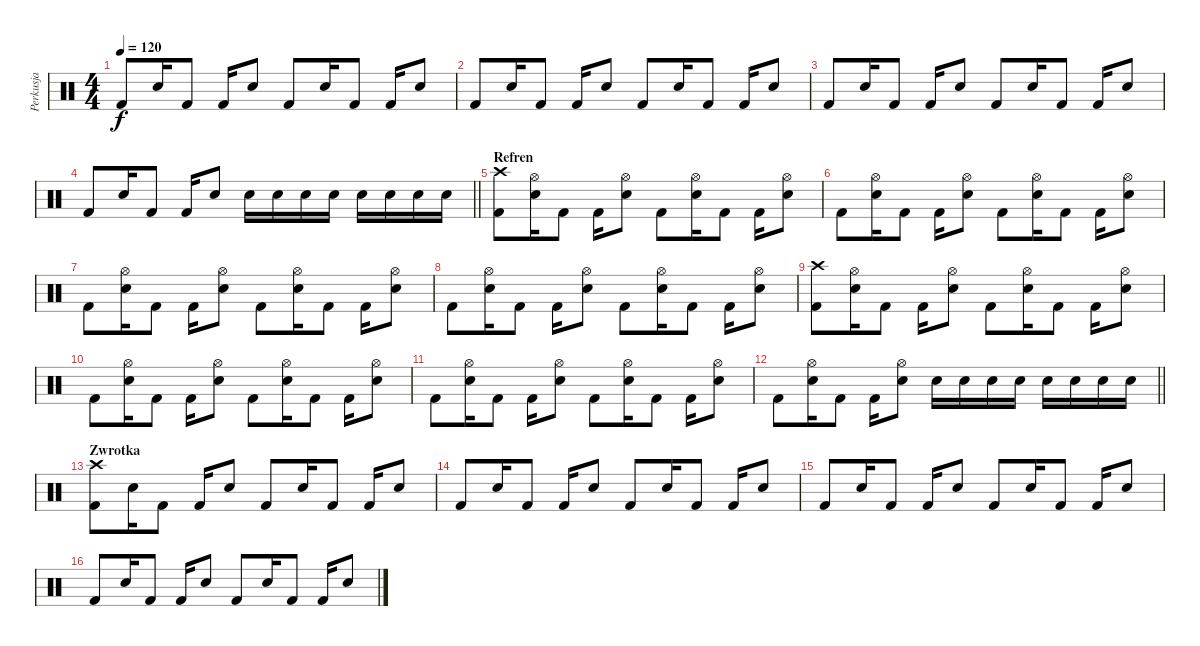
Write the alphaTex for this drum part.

\track ("Perkusja" "Perkusja") {instrument percussion}
\staff {score}
\articulation defaults
\ts (4 4)
\tempo 120
\clef neutral
\ks c "Kick (hit) 2".8{dy f} "Electric Snare (hit)".16 "Kick (hit) 2".8 "Kick (hit) 2".16 "Electric Snare (hit)".8 "Kick (hit) 2".8 "Electric Snare (hit)".16 "Kick (hit) 2".8 "Kick (hit) 2".16 "Electric Snare (hit)".8
|
"Kick (hit) 2".8 "Electric Snare (hit)".16 "Kick (hit) 2".8 "Kick (hit) 2".16 "Electric Snare (hit)".8 "Kick (hit) 2".8 "Electric Snare (hit)".16 "Kick (hit) 2".8 "Kick (hit) 2".16 "Electric Snare (hit)".8 |
"Kick (hit) 2".8 "Electric Snare (hit)".16 "Kick (hit) 2".8 "Kick (hit) 2".16 "Electric Snare (hit)".8 "Kick (hit) 2".8 "Electric Snare (hit)".16 "Kick (hit) 2".8 "Kick (hit) 2".16 "Electric Snare (hit)".8 |
\barLineRight lightlight "Kick (hit) 2".8 "Electric Snare (hit)".16 "Kick (hit) 2".8 "Kick (hit) 2".16 "Electric Snare (hit)".8 "Electric Snare (hit)".16 "Electric Snare (hit)".16 "Electric Snare (hit)".16 "Electric Snare (hit)".16 "Electric Snare (hit)".16 "Electric Snare (hit)".16 "Electric Snare (hit)".16 "Electric Snare (hit)".16
|
\section ("" "Refren")
("Crash high (hit)" "Kick (hit) 2").8 ("Hi-Hat (open)" "Electric Snare (hit)").16 "Kick (hit) 2".8 "Kick (hit) 2".16 ("Hi-Hat (open)" "Electric Snare (hit)").8 "Kick (hit) 2".8 ("Hi-Hat (open)" "Electric Snare (hit)").16 "Kick (hit) 2".8 "Kick (hit) 2".16 ("Hi-Hat (open)" "Electric Snare (hit)").8 |
"Kick (hit) 2".8 ("Hi-Hat (open)" "Electric Snare (hit)").16 "Kick (hit) 2".8 "Kick (hit) 2".16 ("Hi-Hat (open)" "Electric Snare (hit)").8 "Kick (hit) 2".8 ("Hi-Hat (open)" "Electric Snare (hit)").16 "Kick (hit) 2".8 "Kick (hit) 2".16 ("Hi-Hat (open)" "Electric Snare (hit)").8 |
"Kick (hit) 2".8 ("Hi-Hat (open)" "Electric Snare (hit)").16 "Kick (hit) 2".8 "Kick (hit) 2".16 ("Hi-Hat (open)" "Electric Snare (hit)").8 "Kick (hit) 2".8 ("Hi-Hat (open)" "Electric Snare (hit)").16 "Kick (hit) 2".8 "Kick (hit) 2".16 ("Hi-Hat (open)" "Electric Snare (hit)").8 |
"Kick (hit) 2".8 ("Hi-Hat (open)" "Electric Snare (hit)").16 "Kick (hit) 2".8 "Kick (hit) 2".16 ("Hi-Hat (open)" "Electric Snare (hit)").8 "Kick (hit) 2".8 ("Hi-Hat (open)" "Electric Snare (hit)").16 "Kick (hit) 2".8 "Kick (hit) 2".16 ("Hi-Hat (open)" "Electric Snare (hit)").8 |
("Crash high (hit)" "Kick (hit) 2").8 ("Hi-Hat (open)" "Electric Snare (hit)").16 "Kick (hit) 2".8 "Kick (hit) 2".16 ("Hi-Hat (open)" "Electric Snare (hit)").8 "Kick (hit) 2".8 ("Hi-Hat (open)" "Electric Snare (hit)").16 "Kick (hit) 2".8 "Kick (hit) 2".16 ("Hi-Hat (open)" "Electric Snare (hit)").8 |
"Kick (hit) 2".8 ("Hi-Hat (open)" "Electric Snare (hit)").16 "Kick (hit) 2".8 "Kick (hit) 2".16 ("Hi-Hat (open)" "Electric Snare (hit)").8 "Kick (hit) 2".8 ("Hi-Hat (open)" "Electric Snare (hit)").16 "Kick (hit) 2".8 "Kick (hit) 2".16 ("Hi-Hat (open)" "Electric Snare (hit)").8 |
"Kick (hit) 2".8 ("Hi-Hat (open)" "Electric Snare (hit)").16 "Kick (hit) 2".8 "Kick (hit) 2".16 ("Hi-Hat (open)" "Electric Snare (hit)").8 "Kick (hit) 2".8 ("Hi-Hat (open)" "Electric Snare (hit)").16 "Kick (hit) 2".8 "Kick (hit) 2".16 ("Hi-Hat (open)" "Electric Snare (hit)").8 |
\barLineRight lightlight "Kick (hit) 2".8
("Hi-Hat (open)" "Electric Snare (hit)").16 "Kick (hit) 2".8 "Kick (hit) 2".16 ("Hi-Hat (open)" "Electric Snare (hit)").8 "Electric Snare (hit)".16 "Electric Snare (hit)".16 "Electric Snare (hit)".16 "Electric Snare (hit)".16 "Electric Snare (hit)".16 "Electric Snare (hit)".16 "Electric Snare (hit)".16 "Electric Snare (hit)".16 |
\section ("" "Zwrotka")
("Crash high (hit)" "Kick (hit) 2").8 "Electric Snare (hit)".16 "Kick (hit) 2".8 "Kick (hit) 2".16 "Electric Snare (hit)".8 "Kick (hit) 2".8 "Electric Snare (hit)".16 "Kick (hit) 2".8 "Kick (hit) 2".16 "Electric Snare (hit)".8 |
"Kick (hit) 2".8 "Electric Snare (hit)".16 "Kick (hit) 2".8 "Kick (hit) 2".16 "Electric Snare (hit)".8 "Kick (hit) 2".8 "Electric Snare (hit)".16 "Kick (hit) 2".8 "Kick (hit) 2".16 "Electric Snare (hit)".8 |
"Kick (hit) 2".8 "Electric Snare (hit)".16 "Kick (hit) 2".8 "Kick (hit) 2".16 "Electric Snare (hit)".8 "Kick (hit) 2".8 "Electric Snare (hit)".16 "Kick (hit) 2".8 "Kick (hit) 2".16 "Electric Snare (hit)".8 |
"Kick (hit) 2".8 "Electric Snare (hit)".16 "Kick (hit) 2".8 "Kick (hit) 2".16 "Electric Snare (hit)".8 "Kick (hit) 2".8 "Electric Snare (hit)".16 "Kick (hit) 2".8 "Kick (hit) 2".16 "Electric Snare (hit)".8
